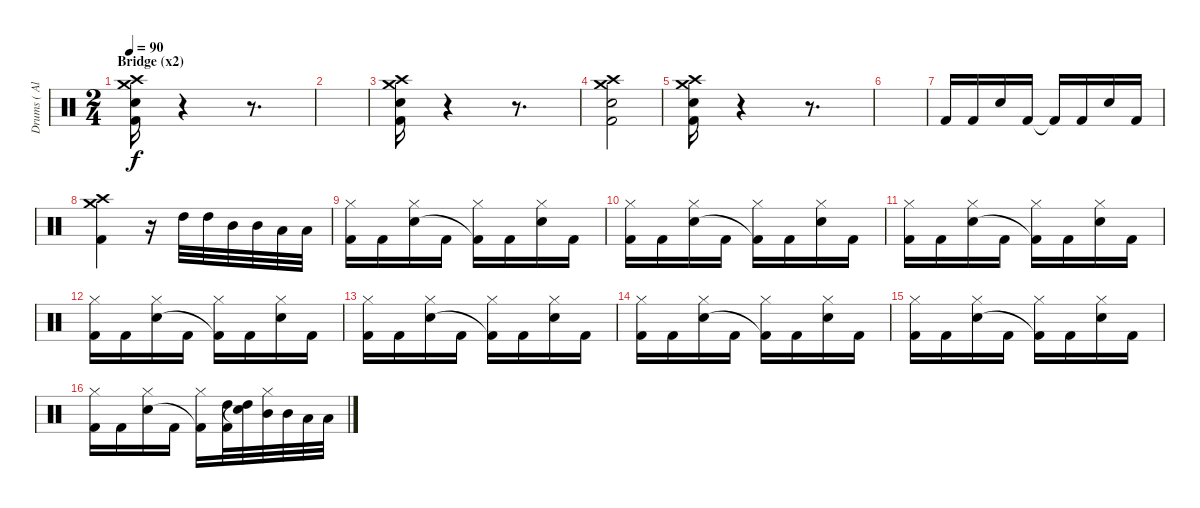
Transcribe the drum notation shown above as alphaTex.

\track ("Drums ( Alex Holzwarth)" "Drums ( Al") {instrument percussion}
\staff {score}
\articulation defaults
\ts (2 4)
\section ("" "Bridge (x2)")
\tempo 90
\clef neutral
\ks c
("Crash high (hit)" "Crash medium (hit)" "Snare (hit) 2" "Kick (hit) 2").16{dy f} r.4 r.8{d} |
|
("Crash high (hit)" "Crash medium (hit)" "Snare (hit) 2" "Kick (hit) 2").16 r.4 r.8{d} |
("Crash high (hit)" "Crash medium (hit)" "Snare (hit) 2" "Kick (hit) 2").2 |
("Crash high (hit)" "Crash medium (hit)" "Snare (hit) 2" "Kick (hit) 2").16 r.4 r.8{d} |
|
"Kick (hit) 2".16 "Kick (hit) 2".16 "Electric Snare (hit)".16 "Kick (hit) 2".16 "Kick (hit) 2"{t}.16 "Kick (hit) 2".16 "Electric Snare (hit)".16 "Kick (hit) 2".16 |
("Crash high (hit)" "Crash medium (hit)" "Kick (hit) 2").4 r.16 "High Tom (hit)".32 "High Tom (hit)".32 "Mid Tom (hit)".32 "Mid Tom (hit)".32 "Low Tom (hit)".32 "Low Tom (hit)".32 |
("Hi-Hat (closed)" "Kick (hit) 2").16 "Kick (hit) 2".16 ("Hi-Hat (closed)" "Electric Snare (hit)").16 "Kick (hit) 2".16 ("Hi-Hat (closed)" "Kick (hit) 2"{t}).16 "Kick (hit) 2".16 ("Hi-Hat (closed)" "Electric Snare (hit)").16 "Kick (hit) 2".16 |
("Hi-Hat (closed)" "Kick (hit) 2").16 "Kick (hit) 2".16 ("Hi-Hat (closed)" "Electric Snare (hit)").16 "Kick (hit) 2".16 ("Hi-Hat (closed)" "Kick (hit) 2"{t}).16 "Kick (hit) 2".16 ("Hi-Hat (closed)" "Electric Snare (hit)").16 "Kick (hit) 2".16 |
("Hi-Hat (closed)" "Kick (hit) 2").16 "Kick (hit) 2".16 ("Hi-Hat (closed)" "Electric Snare (hit)").16 "Kick (hit) 2".16 ("Hi-Hat (closed)" "Kick (hit) 2"{t}).16 "Kick (hit) 2".16 ("Hi-Hat (closed)" "Electric Snare (hit)").16 "Kick (hit) 2".16 |
("Hi-Hat (closed)" "Kick (hit) 2").16 "Kick (hit) 2".16 ("Hi-Hat (closed)" "Electric Snare (hit)").16 "Kick (hit) 2".16 ("Hi-Hat (closed)" "Kick (hit) 2"{t}).16 "Kick (hit) 2".16 ("Hi-Hat (closed)" "Electric Snare (hit)").16 "Kick (hit) 2".16 |
("Hi-Hat (closed)" "Kick (hit) 2").16 "Kick (hit) 2".16 ("Hi-Hat (closed)" "Electric Snare (hit)").16 "Kick (hit) 2".16 ("Hi-Hat (closed)" "Kick (hit) 2"{t}).16 "Kick (hit) 2".16 ("Hi-Hat (closed)" "Electric Snare (hit)").16 "Kick (hit) 2".16 |
("Hi-Hat (closed)" "Kick (hit) 2").16 "Kick (hit) 2".16 ("Hi-Hat (closed)" "Electric Snare (hit)").16 "Kick (hit) 2".16 ("Hi-Hat (closed)" "Kick (hit) 2"{t}).16 "Kick (hit) 2".16 ("Hi-Hat (closed)" "Electric Snare (hit)").16 "Kick (hit) 2".16 |
("Hi-Hat (closed)" "Kick (hit) 2").16 "Kick (hit) 2".16 ("Hi-Hat (closed)" "Electric Snare (hit)").16 "Kick (hit) 2".16 ("Hi-Hat (closed)" "Kick (hit) 2"{t}).16 "Kick (hit) 2".16 ("Hi-Hat (closed)" "Electric Snare (hit)").16 "Kick (hit) 2".16 |
("Hi-Hat (closed)" "Kick (hit) 2").16 "Kick (hit) 2".16 ("Hi-Hat (closed)" "Electric Snare (hit)").16 "Kick (hit) 2".16 ("Hi-Hat (closed)" "Kick (hit) 2"{t}).16 ("High Tom (hit)" "Kick (hit) 2").32 ("High Tom (hit)" "Snare (hit)"{t}).32 ("Hi-Hat (closed)" "Mid Tom (hit)").32 "Mid Tom (hit)".32 "Low Tom (hit)".32 "Low Tom (hit)".32
